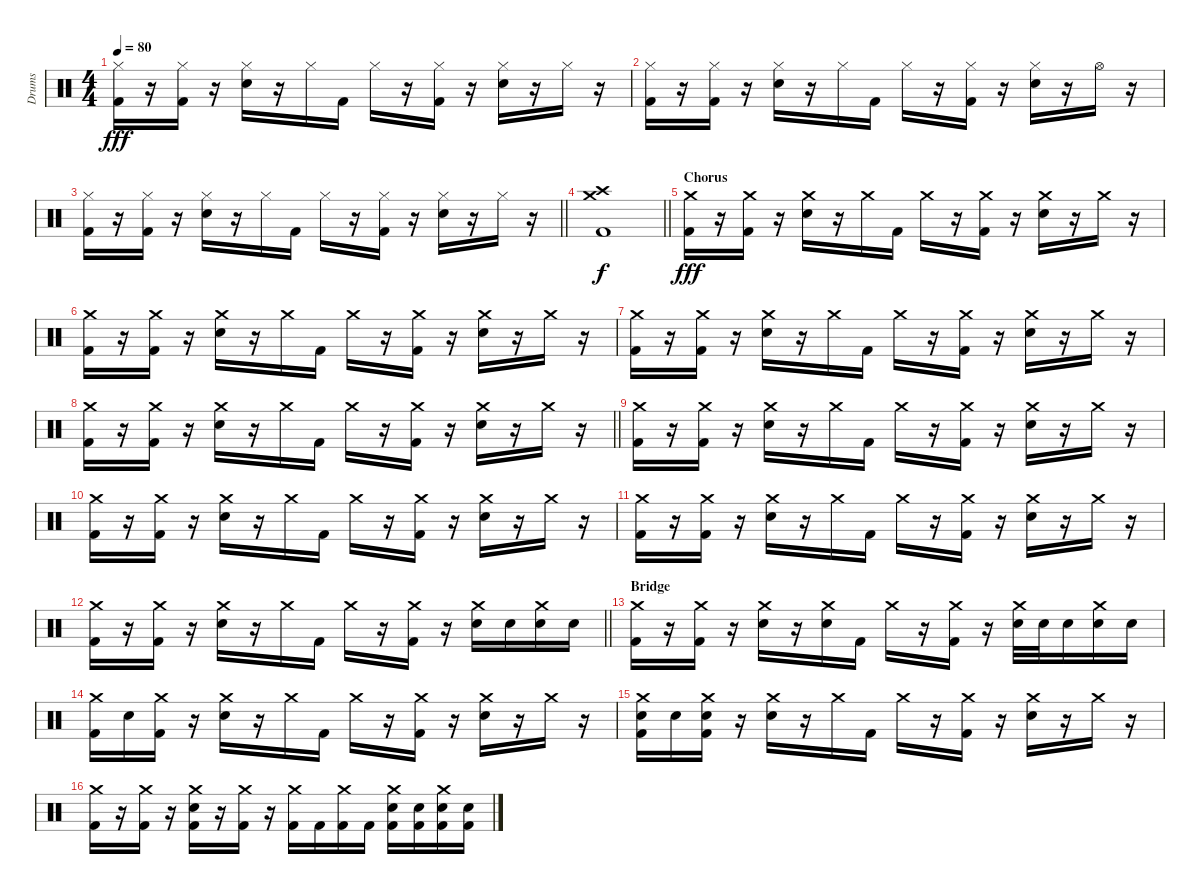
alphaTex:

\track ("Drums" "Drums") {instrument percussion}
\staff {score}
\articulation defaults
\ts (4 4)
\tempo 80
\clef neutral
\ks c
("Hi-Hat (closed)" "Kick (hit) 2").16{dy fff} r.16 ("Hi-Hat (closed)" "Kick (hit) 2").16 r.16 ("Hi-Hat (closed)" "Snare (hit) 2").16 r.16 "Hi-Hat (closed)".16 "Kick (hit) 2".16 "Hi-Hat (closed)".16 r.16 ("Hi-Hat (closed)" "Kick (hit) 2").16 r.16 ("Hi-Hat (closed)" "Snare (hit) 2").16 r.16 "Hi-Hat (closed)".16 r.16 |
("Hi-Hat (closed)" "Kick (hit) 2").16 r.16 ("Hi-Hat (closed)" "Kick (hit) 2").16 r.16 ("Hi-Hat (closed)" "Snare (hit) 2").16 r.16 "Hi-Hat (closed)".16 "Kick (hit) 2".16 "Hi-Hat (closed)".16 r.16 ("Hi-Hat (closed)" "Kick (hit) 2").16 r.16 ("Hi-Hat (closed)" "Snare (hit) 2").16 r.16 "Hi-Hat (open)".16 r.16 |
\barLineRight lightlight
("Hi-Hat (closed)" "Kick (hit) 2").16 r.16 ("Hi-Hat (closed)" "Kick (hit) 2").16 r.16 ("Hi-Hat (closed)" "Snare (hit) 2").16 r.16 "Hi-Hat (closed)".16 "Kick (hit) 2".16 "Hi-Hat (closed)".16 r.16 ("Hi-Hat (closed)" "Kick (hit) 2").16 r.16 ("Hi-Hat (closed)" "Snare (hit) 2").16 r.16 "Hi-Hat (closed)".16 r.16 |
\barLineRight lightlight
("Crash high (hit)" "Crash medium (hit)" "Kick (hit) 2").1{dy f} |
\section ("" "Chorus")
("Crash medium (hit)" "Kick (hit) 2").16{dy fff} r.16 ("Crash medium (hit)" "Kick (hit) 2").16 r.16 ("Crash medium (hit)" "Snare (hit) 2").16 r.16 "Crash medium (hit)".16 "Kick (hit) 2".16 "Crash medium (hit)".16 r.16 ("Crash medium (hit)" "Kick (hit) 2").16 r.16 ("Crash medium (hit)" "Snare (hit) 2").16 r.16 "Crash medium (hit)".16 r.16 |
("Crash medium (hit)" "Kick (hit) 2").16 r.16 ("Crash medium (hit)" "Kick (hit) 2").16 r.16 ("Crash medium (hit)" "Snare (hit) 2").16 r.16 "Crash medium (hit)".16 "Kick (hit) 2".16 "Crash medium (hit)".16 r.16 ("Crash medium (hit)" "Kick (hit) 2").16 r.16 ("Crash medium (hit)" "Snare (hit) 2").16 r.16 "Crash medium (hit)".16 r.16 |
("Crash medium (hit)" "Kick (hit) 2").16 r.16 ("Crash medium (hit)" "Kick (hit) 2").16 r.16 ("Crash medium (hit)" "Snare (hit) 2").16 r.16 "Crash medium (hit)".16 "Kick (hit) 2".16 "Crash medium (hit)".16 r.16 ("Crash medium (hit)" "Kick (hit) 2").16 r.16 ("Crash medium (hit)" "Snare (hit) 2").16 r.16 "Crash medium (hit)".16 r.16 |
\barLineRight lightlight
("Crash medium (hit)" "Kick (hit) 2").16 r.16 ("Crash medium (hit)" "Kick (hit) 2").16 r.16 ("Crash medium (hit)" "Snare (hit) 2").16 r.16 "Crash medium (hit)".16 "Kick (hit) 2".16 "Crash medium (hit)".16 r.16 ("Crash medium (hit)" "Kick (hit) 2").16 r.16 ("Crash medium (hit)" "Snare (hit) 2").16 r.16 "Crash medium (hit)".16 r.16 |
("Crash medium (hit)" "Kick (hit) 2").16 r.16 ("Crash medium (hit)" "Kick (hit) 2").16 r.16 ("Crash medium (hit)" "Snare (hit) 2").16 r.16 "Crash medium (hit)".16 "Kick (hit) 2".16 "Crash medium (hit)".16 r.16 ("Crash medium (hit)" "Kick (hit) 2").16 r.16 ("Crash medium (hit)" "Snare (hit) 2").16 r.16 "Crash medium (hit)".16 r.16 |
("Crash medium (hit)" "Kick (hit) 2").16 r.16 ("Crash medium (hit)" "Kick (hit) 2").16 r.16 ("Crash medium (hit)" "Snare (hit) 2").16 r.16 "Crash medium (hit)".16 "Kick (hit) 2".16 "Crash medium (hit)".16 r.16 ("Crash medium (hit)" "Kick (hit) 2").16 r.16 ("Crash medium (hit)" "Snare (hit) 2").16 r.16 "Crash medium (hit)".16 r.16 |
("Crash medium (hit)" "Kick (hit) 2").16 r.16 ("Crash medium (hit)" "Kick (hit) 2").16 r.16 ("Crash medium (hit)" "Snare (hit) 2").16 r.16 "Crash medium (hit)".16 "Kick (hit) 2".16 "Crash medium (hit)".16 r.16 ("Crash medium (hit)" "Kick (hit) 2").16 r.16 ("Crash medium (hit)" "Snare (hit) 2").16 r.16 "Crash medium (hit)".16 r.16 |
\barLineRight lightlight
("Crash medium (hit)" "Kick (hit) 2").16 r.16 ("Crash medium (hit)" "Kick (hit) 2").16 r.16 ("Crash medium (hit)" "Snare (hit) 2").16 r.16 "Crash medium (hit)".16 "Kick (hit) 2".16 "Crash medium (hit)".16 r.16 ("Crash medium (hit)" "Kick (hit) 2").16 r.16 ("Crash medium (hit)" "Snare (hit) 2").16 "Snare (hit) 2".16 ("Crash medium (hit)" "Snare (hit) 2").16 "Snare (hit) 2".16 |
\section ("" "Bridge")
("Crash medium (hit)" "Kick (hit) 2").16 r.16 ("Crash medium (hit)" "Kick (hit) 2").16 r.16 ("Crash medium (hit)" "Snare (hit) 2").16 r.16 ("Crash medium (hit)" "Snare (hit) 2").16 "Kick (hit) 2".16 "Crash medium (hit)".16 r.16 ("Crash medium (hit)" "Kick (hit) 2").16 r.16 ("Crash medium (hit)" "Snare (hit) 2").32 "Snare (hit) 2".32 "Snare (hit) 2".16 ("Crash medium (hit)" "Snare (hit) 2").16 "Snare (hit) 2".16 |
("Crash medium (hit)" "Kick (hit) 2").16 "Snare (hit) 2".16 ("Crash medium (hit)" "Kick (hit) 2").16 r.16 ("Crash medium (hit)" "Snare (hit) 2").16 r.16 "Crash medium (hit)".16 "Kick (hit) 2".16 "Crash medium (hit)".16 r.16 ("Crash medium (hit)" "Kick (hit) 2").16 r.16 ("Crash medium (hit)" "Snare (hit) 2").16 r.16 "Crash medium (hit)".16 r.16 |
("Crash medium (hit)" "Snare (hit) 2" "Kick (hit) 2").16 "Snare (hit) 2".16 ("Crash medium (hit)" "Snare (hit) 2" "Kick (hit) 2").16 r.16 ("Crash medium (hit)" "Snare (hit) 2").16 r.16 "Crash medium (hit)".16 "Kick (hit) 2".16 "Crash medium (hit)".16 r.16 ("Crash medium (hit)" "Kick (hit) 2").16 r.16 ("Crash medium (hit)" "Snare (hit) 2").16 r.16 "Crash medium (hit)".16 r.16 |
("Crash medium (hit)" "Kick (hit) 2").16 r.16 ("Crash medium (hit)" "Kick (hit) 2").16 r.16 ("Crash medium (hit)" "Snare (hit) 2" "Kick (hit) 2").16 r.16 ("Crash medium (hit)" "Kick (hit) 2").16 r.16 ("Crash medium (hit)" "Kick (hit) 2").16 "Kick (hit) 2".16 ("Crash medium (hit)" "Kick (hit) 2").16 "Kick (hit) 2".16 ("Crash medium (hit)" "Snare (hit) 2" "Kick (hit) 2").16 ("Snare (hit) 2" "Kick (hit) 2").16 ("Crash medium (hit)" "Snare (hit) 2" "Kick (hit) 2").16 ("Snare (hit) 2" "Kick (hit) 2").16
